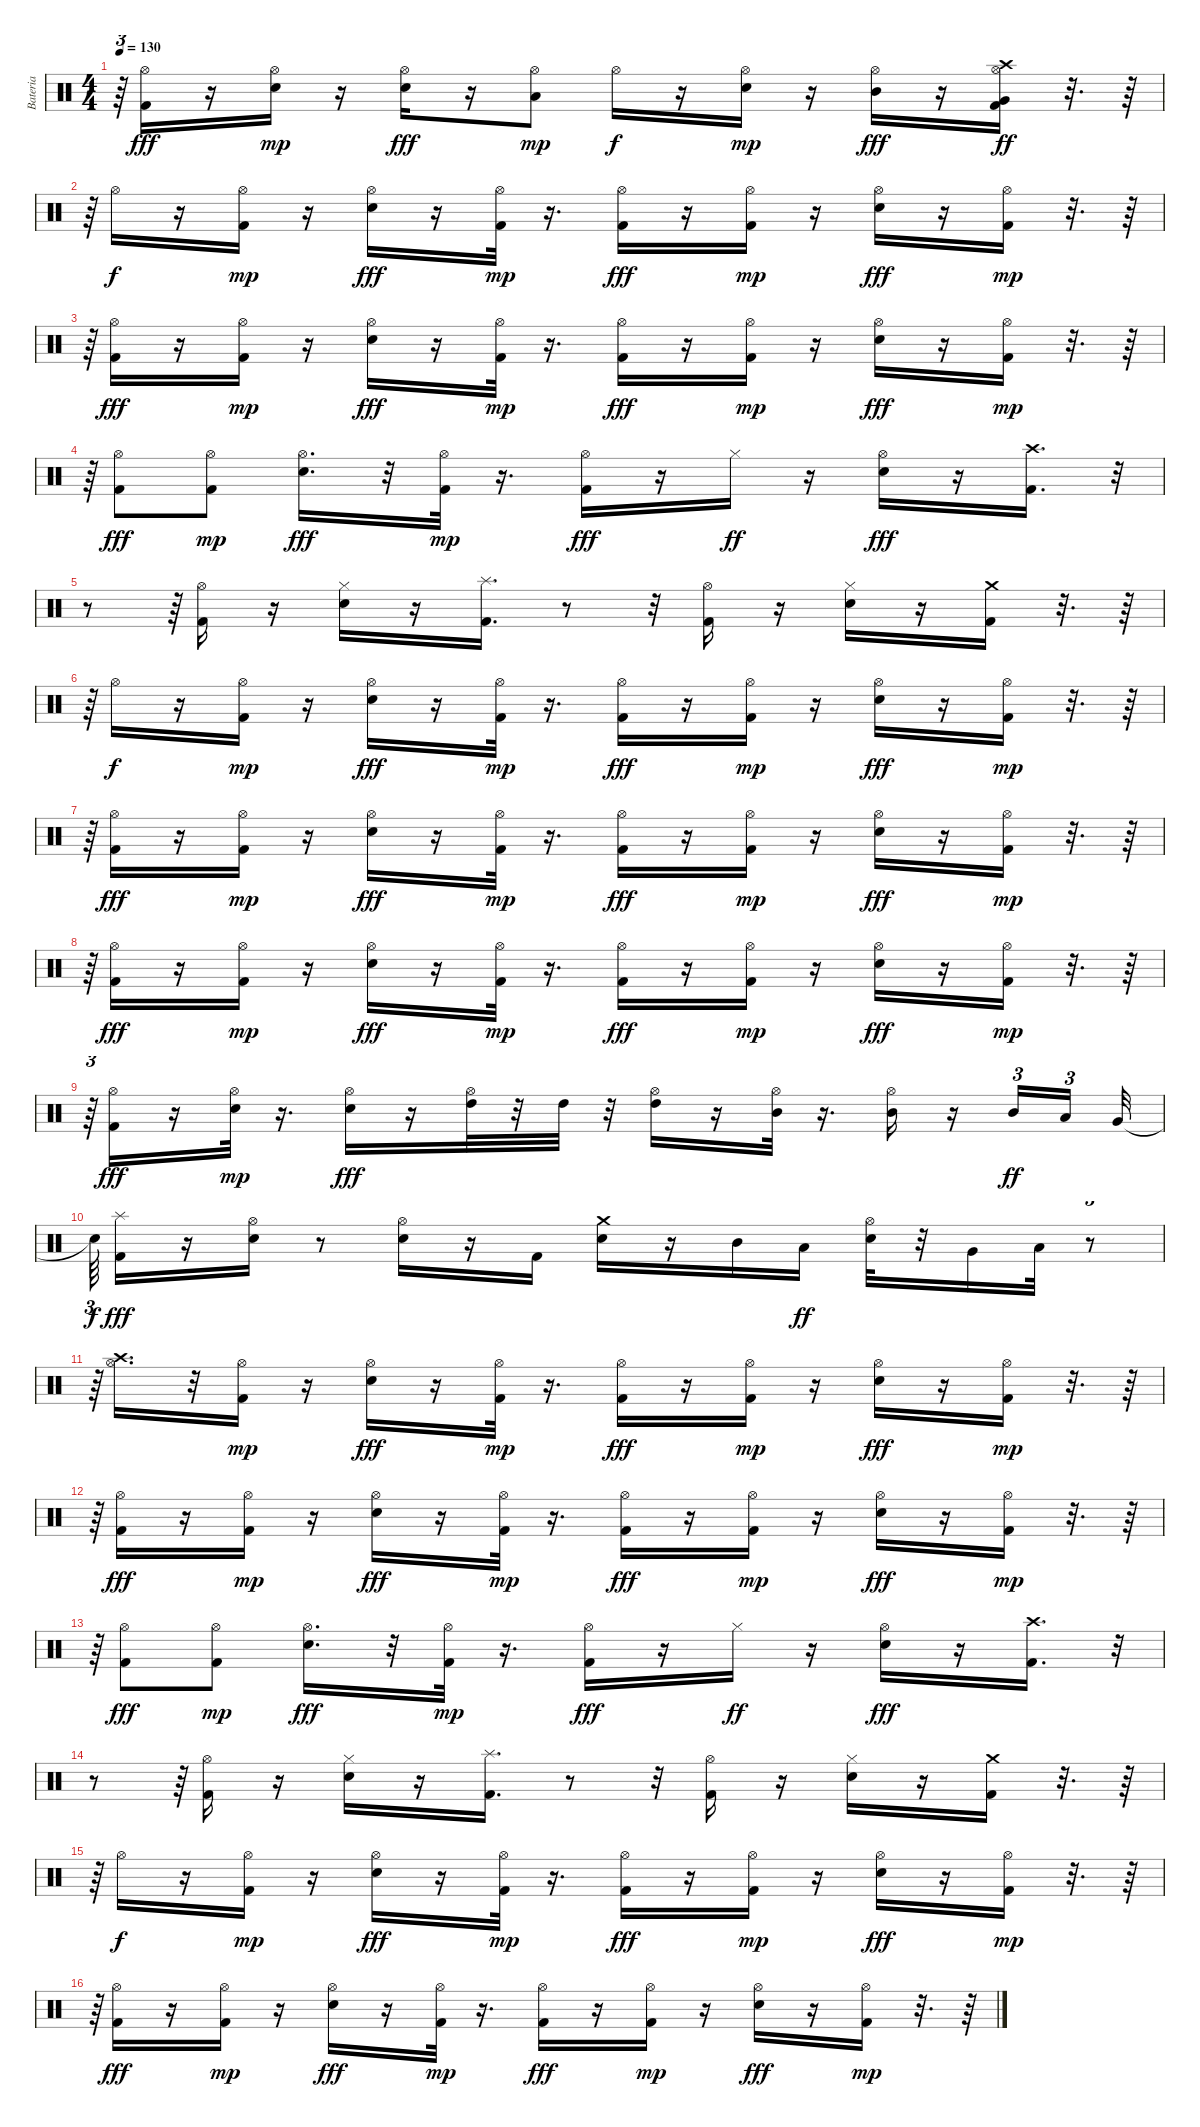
\track ("Bateria" "Bateria") {instrument percussion}
\staff {score}
\articulation defaults
\ts (4 4)
\tempo 130
\clef neutral
\ks c
r.64{tu (3 2) dy mp} ("Kick (hit) 2" "Hi-Hat (open)").16{dy fff} r.16 ("Electric Snare (hit)" "Hi-Hat (open)").16{dy mp} r.16 ("Electric Snare (hit)" "Hi-Hat (open)").16{dy fff} r.16 ("Low Tom (hit)" "Hi-Hat (open)").8{dy mp} "Hi-Hat (open)".16{dy f} r.16 ("Electric Snare (hit)" "Hi-Hat (open)").16{dy mp} r.16 ("Hi-Hat (open)" "Mid Tom (hit)").16{dy fff} r.16 ("Kick (hit) 2" "Very Low Tom (hit)" "Hi-Hat (open)" "Crash high (hit)").16{dy ff} r.32{d} r.64 |
r.64{tu (3 2)} "Hi-Hat (open)".16{dy f} r.16 ("Kick (hit) 2" "Hi-Hat (open)").16{dy mp} r.16 ("Electric Snare (hit)" "Hi-Hat (open)").16{dy fff} r.16 ("Kick (hit) 2" "Hi-Hat (open)").32{dy mp} r.16{d} ("Kick (hit) 2" "Hi-Hat (open)").16{dy fff} r.16 ("Kick (hit) 2" "Hi-Hat (open)").16{dy mp} r.16 ("Electric Snare (hit)" "Hi-Hat (open)").16{dy fff} r.16 ("Kick (hit) 2" "Hi-Hat (open)").16{dy mp} r.32{d} r.64 |
r.64{tu (3 2)} ("Kick (hit) 2" "Hi-Hat (open)").16{dy fff} r.16 ("Kick (hit) 2" "Hi-Hat (open)").16{dy mp} r.16 ("Electric Snare (hit)" "Hi-Hat (open)").16{dy fff} r.16 ("Kick (hit) 2" "Hi-Hat (open)").32{dy mp} r.16{d} ("Kick (hit) 2" "Hi-Hat (open)").16{dy fff} r.16 ("Kick (hit) 2" "Hi-Hat (open)").16{dy mp} r.16 ("Electric Snare (hit)" "Hi-Hat (open)").16{dy fff} r.16 ("Kick (hit) 2" "Hi-Hat (open)").16{dy mp} r.32{d} r.64 |
r.64{tu (3 2)} ("Kick (hit) 2" "Hi-Hat (open)").8{dy fff} ("Kick (hit) 2" "Hi-Hat (open)").8{dy mp} ("Electric Snare (hit)" "Hi-Hat (open)").16{d dy fff} r.32 ("Kick (hit) 2" "Hi-Hat (open)").32{dy mp} r.16{d} ("Kick (hit) 2" "Hi-Hat (open)").16{dy fff} r.16 "Hi-Hat (closed)".16{dy ff} r.16 ("Electric Snare (hit)" "Hi-Hat (open)").16{dy fff} r.16 ("Kick (hit) 2" "Crash high (hit)").16{d} r.32{tu (3 2)} |
r.8 r.64{tu (3 2)} ("Kick (hit) 2" "Hi-Hat (open)").16 r.16 ("Electric Snare (hit)" "Hi-Hat (closed)").16 r.16 ("Kick (hit) 2" "Splash (hit)").16{d} r.8 r.32 ("Kick (hit) 2" "Hi-Hat (open)").16 r.16 ("Electric Snare (hit)" "Hi-Hat (closed)").16 r.16 ("Kick (hit) 2" "Crash medium (hit)").16 r.32{d} r.64 |
r.64{tu (3 2)} "Hi-Hat (open)".16{dy f} r.16 ("Kick (hit) 2" "Hi-Hat (open)").16{dy mp} r.16 ("Electric Snare (hit)" "Hi-Hat (open)").16{dy fff} r.16 ("Kick (hit) 2" "Hi-Hat (open)").32{dy mp} r.16{d} ("Kick (hit) 2" "Hi-Hat (open)").16{dy fff} r.16 ("Kick (hit) 2" "Hi-Hat (open)").16{dy mp} r.16 ("Electric Snare (hit)" "Hi-Hat (open)").16{dy fff} r.16 ("Kick (hit) 2" "Hi-Hat (open)").16{dy mp} r.32{d} r.64 |
r.64{tu (3 2)} ("Kick (hit) 2" "Hi-Hat (open)").16{dy fff} r.16 ("Kick (hit) 2" "Hi-Hat (open)").16{dy mp} r.16 ("Electric Snare (hit)" "Hi-Hat (open)").16{dy fff} r.16 ("Kick (hit) 2" "Hi-Hat (open)").32{dy mp} r.16{d} ("Kick (hit) 2" "Hi-Hat (open)").16{dy fff} r.16 ("Kick (hit) 2" "Hi-Hat (open)").16{dy mp} r.16 ("Electric Snare (hit)" "Hi-Hat (open)").16{dy fff} r.16 ("Kick (hit) 2" "Hi-Hat (open)").16{dy mp} r.32{d} r.64 |
r.64{tu (3 2)} ("Kick (hit) 2" "Hi-Hat (open)").16{dy fff} r.16 ("Kick (hit) 2" "Hi-Hat (open)").16{dy mp} r.16 ("Electric Snare (hit)" "Hi-Hat (open)").16{dy fff} r.16 ("Kick (hit) 2" "Hi-Hat (open)").32{dy mp} r.16{d} ("Kick (hit) 2" "Hi-Hat (open)").16{dy fff} r.16 ("Kick (hit) 2" "Hi-Hat (open)").16{dy mp} r.16 ("Electric Snare (hit)" "Hi-Hat (open)").16{dy fff} r.16 ("Kick (hit) 2" "Hi-Hat (open)").16{dy mp} r.32{d} r.64 |
r.64{tu (3 2)} ("Kick (hit) 2" "Hi-Hat (open)").16{dy fff} r.16 ("Electric Snare (hit)" "Hi-Hat (open)").32{dy mp} r.16{d} ("Electric Snare (hit)" "Hi-Hat (open)").16{dy fff} r.16 ("Hi-Hat (open)" "High Tom (hit)").32 r.32 "High Tom (hit)".32 r.32 ("Hi-Hat (open)" "High Tom (hit)").16 r.16 ("Hi-Hat (open)" "Mid Tom (hit)").32 r.16{d} ("Hi-Hat (open)" "Mid Tom (hit)").16 r.16 "Mid Tom (hit)".16{tu (3 2) dy ff} "Low Tom (hit)".16{tu (3 2) beam splitsecondary} "Very Low Tom (hit)".32 |
"Snare (hit)"{t}.64{tu (3 2) dy f} ("Kick (hit) 2" "Splash (hit)").16{dy fff} r.16 ("Electric Snare (hit)" "Hi-Hat (open)").16 r.8 ("Electric Snare (hit)" "Hi-Hat (open)").16 r.16 "Kick (hit) 2".16 ("Electric Snare (hit)" "Crash medium (hit)").16 r.16 "Mid Tom (hit)".16 "Low Tom (hit)".16{dy ff} ("Electric Snare (hit)" "Hi-Hat (open)").32 r.32 "Very Low Tom (hit)".16 "Low Tom (hit)".32 r.8{tu (3 2)} |
r.64{tu (3 2)} ("Hi-Hat (open)" "Crash high (hit)").16{d} r.32 ("Kick (hit) 2" "Hi-Hat (open)").16{dy mp} r.16 ("Electric Snare (hit)" "Hi-Hat (open)").16{dy fff} r.16 ("Kick (hit) 2" "Hi-Hat (open)").32{dy mp} r.16{d} ("Kick (hit) 2" "Hi-Hat (open)").16{dy fff} r.16 ("Kick (hit) 2" "Hi-Hat (open)").16{dy mp} r.16 ("Electric Snare (hit)" "Hi-Hat (open)").16{dy fff} r.16 ("Kick (hit) 2" "Hi-Hat (open)").16{dy mp} r.32{d} r.64 |
r.64{tu (3 2)} ("Kick (hit) 2" "Hi-Hat (open)").16{dy fff} r.16 ("Kick (hit) 2" "Hi-Hat (open)").16{dy mp} r.16 ("Electric Snare (hit)" "Hi-Hat (open)").16{dy fff} r.16 ("Kick (hit) 2" "Hi-Hat (open)").32{dy mp} r.16{d} ("Kick (hit) 2" "Hi-Hat (open)").16{dy fff} r.16 ("Kick (hit) 2" "Hi-Hat (open)").16{dy mp} r.16 ("Electric Snare (hit)" "Hi-Hat (open)").16{dy fff} r.16 ("Kick (hit) 2" "Hi-Hat (open)").16{dy mp} r.32{d} r.64 |
r.64{tu (3 2)} ("Kick (hit) 2" "Hi-Hat (open)").8{dy fff} ("Kick (hit) 2" "Hi-Hat (open)").8{dy mp} ("Electric Snare (hit)" "Hi-Hat (open)").16{d dy fff} r.32 ("Kick (hit) 2" "Hi-Hat (open)").32{dy mp} r.16{d} ("Kick (hit) 2" "Hi-Hat (open)").16{dy fff} r.16 "Hi-Hat (closed)".16{dy ff} r.16 ("Electric Snare (hit)" "Hi-Hat (open)").16{dy fff} r.16 ("Kick (hit) 2" "Crash high (hit)").16{d} r.32{tu (3 2)} |
r.8 r.64{tu (3 2)} ("Kick (hit) 2" "Hi-Hat (open)").16 r.16 ("Electric Snare (hit)" "Hi-Hat (closed)").16 r.16 ("Kick (hit) 2" "Splash (hit)").16{d} r.8 r.32 ("Kick (hit) 2" "Hi-Hat (open)").16 r.16 ("Electric Snare (hit)" "Hi-Hat (closed)").16 r.16 ("Kick (hit) 2" "Crash medium (hit)").16 r.32{d} r.64 |
r.64{tu (3 2)} "Hi-Hat (open)".16{dy f} r.16 ("Kick (hit) 2" "Hi-Hat (open)").16{dy mp} r.16 ("Electric Snare (hit)" "Hi-Hat (open)").16{dy fff} r.16 ("Kick (hit) 2" "Hi-Hat (open)").32{dy mp} r.16{d} ("Kick (hit) 2" "Hi-Hat (open)").16{dy fff} r.16 ("Kick (hit) 2" "Hi-Hat (open)").16{dy mp} r.16 ("Electric Snare (hit)" "Hi-Hat (open)").16{dy fff} r.16 ("Kick (hit) 2" "Hi-Hat (open)").16{dy mp} r.32{d} r.64 |
r.64{tu (3 2)} ("Kick (hit) 2" "Hi-Hat (open)").16{dy fff} r.16 ("Kick (hit) 2" "Hi-Hat (open)").16{dy mp} r.16 ("Electric Snare (hit)" "Hi-Hat (open)").16{dy fff} r.16 ("Kick (hit) 2" "Hi-Hat (open)").32{dy mp} r.16{d} ("Kick (hit) 2" "Hi-Hat (open)").16{dy fff} r.16 ("Kick (hit) 2" "Hi-Hat (open)").16{dy mp} r.16 ("Electric Snare (hit)" "Hi-Hat (open)").16{dy fff} r.16 ("Kick (hit) 2" "Hi-Hat (open)").16{dy mp} r.32{d} r.64
